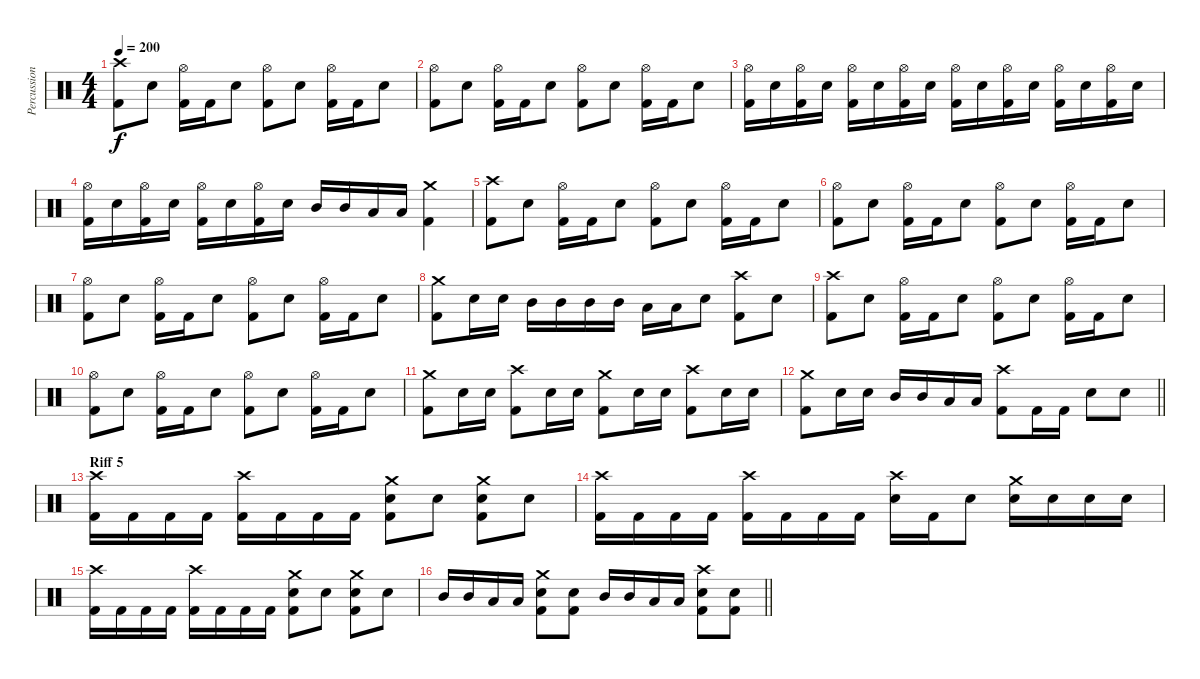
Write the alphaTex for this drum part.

\track ("Percussion" "Percussion") {instrument percussion}
\staff {score}
\articulation defaults
\ts (4 4)
\tempo 200
\clef neutral
\ks c
("Crash high (hit)" "Kick (hit) 2").8{dy f} "Electric Snare (hit)".8 ("Hi-Hat (open)" "Kick (hit) 2").16 "Kick (hit) 2".16 "Electric Snare (hit)".8 ("Hi-Hat (open)" "Kick (hit) 2").8 "Electric Snare (hit)".8 ("Hi-Hat (open)" "Kick (hit) 2").16 "Kick (hit) 2".16 "Electric Snare (hit)".8 |
("Hi-Hat (open)" "Kick (hit) 2").8 "Electric Snare (hit)".8 ("Hi-Hat (open)" "Kick (hit) 2").16 "Kick (hit) 2".16 "Electric Snare (hit)".8 ("Hi-Hat (open)" "Kick (hit) 2").8 "Electric Snare (hit)".8 ("Hi-Hat (open)" "Kick (hit) 2").16 "Kick (hit) 2".16 "Electric Snare (hit)".8 |
("Hi-Hat (open)" "Kick (hit) 2").16 "Electric Snare (hit)".16 ("Hi-Hat (open)" "Kick (hit) 2").16 "Electric Snare (hit)".16 ("Hi-Hat (open)" "Kick (hit) 2").16 "Electric Snare (hit)".16 ("Hi-Hat (open)" "Kick (hit) 2").16 "Electric Snare (hit)".16 ("Hi-Hat (open)" "Kick (hit) 2").16 "Electric Snare (hit)".16 ("Hi-Hat (open)" "Kick (hit) 2").16 "Electric Snare (hit)".16 ("Hi-Hat (open)" "Kick (hit) 2").16 "Electric Snare (hit)".16 ("Hi-Hat (open)" "Kick (hit) 2").16 "Electric Snare (hit)".16 |
("Hi-Hat (open)" "Kick (hit) 2").16 "Electric Snare (hit)".16 ("Hi-Hat (open)" "Kick (hit) 2").16 "Electric Snare (hit)".16 ("Hi-Hat (open)" "Kick (hit) 2").16 "Electric Snare (hit)".16 ("Hi-Hat (open)" "Kick (hit) 2").16 "Electric Snare (hit)".16 "Mid Tom (hit)".16 "Mid Tom (hit)".16 "Low Tom (hit)".16 "Low Tom (hit)".16 ("Crash medium (hit)" "Kick (hit) 2").4 |
("Crash high (hit)" "Kick (hit) 2").8 "Electric Snare (hit)".8 ("Hi-Hat (open)" "Kick (hit) 2").16 "Kick (hit) 2".16 "Electric Snare (hit)".8 ("Hi-Hat (open)" "Kick (hit) 2").8 "Electric Snare (hit)".8 ("Hi-Hat (open)" "Kick (hit) 2").16 "Kick (hit) 2".16 "Electric Snare (hit)".8 |
("Hi-Hat (open)" "Kick (hit) 2").8 "Electric Snare (hit)".8 ("Hi-Hat (open)" "Kick (hit) 2").16 "Kick (hit) 2".16 "Electric Snare (hit)".8 ("Hi-Hat (open)" "Kick (hit) 2").8 "Electric Snare (hit)".8 ("Hi-Hat (open)" "Kick (hit) 2").16 "Kick (hit) 2".16 "Electric Snare (hit)".8 |
("Hi-Hat (open)" "Kick (hit) 2").8 "Electric Snare (hit)".8 ("Hi-Hat (open)" "Kick (hit) 2").16 "Kick (hit) 2".16 "Electric Snare (hit)".8 ("Hi-Hat (open)" "Kick (hit) 2").8 "Electric Snare (hit)".8 ("Hi-Hat (open)" "Kick (hit) 2").16 "Kick (hit) 2".16 "Electric Snare (hit)".8 |
("Crash medium (hit)" "Kick (hit) 2").8 "Electric Snare (hit)".16 "Electric Snare (hit)".16 "Mid Tom (hit)".16 "Mid Tom (hit)".16 "Mid Tom (hit)".16 "Mid Tom (hit)".16 "Low Tom (hit)".16 "Low Tom (hit)".16 "Electric Snare (hit)".8 ("Crash high (hit)" "Kick (hit) 2").8 "Electric Snare (hit)".8 |
("Crash high (hit)" "Kick (hit) 2").8 "Electric Snare (hit)".8 ("Hi-Hat (open)" "Kick (hit) 2").16 "Kick (hit) 2".16 "Electric Snare (hit)".8 ("Hi-Hat (open)" "Kick (hit) 2").8 "Electric Snare (hit)".8 ("Hi-Hat (open)" "Kick (hit) 2").16 "Kick (hit) 2".16 "Electric Snare (hit)".8 |
("Hi-Hat (open)" "Kick (hit) 2").8 "Electric Snare (hit)".8 ("Hi-Hat (open)" "Kick (hit) 2").16 "Kick (hit) 2".16 "Electric Snare (hit)".8 ("Hi-Hat (open)" "Kick (hit) 2").8 "Electric Snare (hit)".8 ("Hi-Hat (open)" "Kick (hit) 2").16 "Kick (hit) 2".16 "Electric Snare (hit)".8 |
("Crash medium (hit)" "Kick (hit) 2").8 "Electric Snare (hit)".16 "Electric Snare (hit)".16 ("Crash high (hit)" "Kick (hit) 2").8 "Electric Snare (hit)".16 "Electric Snare (hit)".16 ("Crash medium (hit)" "Kick (hit) 2").8 "Electric Snare (hit)".16 "Electric Snare (hit)".16 ("Crash high (hit)" "Kick (hit) 2").8 "Electric Snare (hit)".16 "Electric Snare (hit)".16 |
\barLineRight lightlight
("Crash medium (hit)" "Kick (hit) 2").8 "Electric Snare (hit)".16 "Electric Snare (hit)".16 "Mid Tom (hit)".16 "Mid Tom (hit)".16 "Low Tom (hit)".16 "Low Tom (hit)".16 ("Crash high (hit)" "Kick (hit) 2").8 "Kick (hit) 2".16 "Kick (hit) 2".16 "Electric Snare (hit)".8 "Electric Snare (hit)".8 |
\section ("" "Riff 5")
("Crash high (hit)" "Kick (hit) 2").16 "Kick (hit) 2".16 "Kick (hit) 2".16 "Kick (hit) 2".16 ("Crash high (hit)" "Kick (hit) 2").16 "Kick (hit) 2".16 "Kick (hit) 2".16 "Kick (hit) 2".16 ("Crash medium (hit)" "Electric Snare (hit)" "Kick (hit) 2").8 "Electric Snare (hit)".8 ("Crash medium (hit)" "Electric Snare (hit)" "Kick (hit) 2").8 "Electric Snare (hit)".8 |
("Crash high (hit)" "Kick (hit) 2").16 "Kick (hit) 2".16 "Kick (hit) 2".16 "Kick (hit) 2".16 ("Crash high (hit)" "Kick (hit) 2").16 "Kick (hit) 2".16 "Kick (hit) 2".16 "Kick (hit) 2".16 ("Crash high (hit)" "Electric Snare (hit)").16 "Kick (hit) 2".16 "Electric Snare (hit)".8 ("Crash medium (hit)" "Electric Snare (hit)").16 "Electric Snare (hit)".16 "Electric Snare (hit)".16 "Electric Snare (hit)".16 |
("Crash high (hit)" "Kick (hit) 2").16 "Kick (hit) 2".16 "Kick (hit) 2".16 "Kick (hit) 2".16 ("Crash high (hit)" "Kick (hit) 2").16 "Kick (hit) 2".16 "Kick (hit) 2".16 "Kick (hit) 2".16 ("Crash medium (hit)" "Electric Snare (hit)" "Kick (hit) 2").8 "Electric Snare (hit)".8 ("Crash medium (hit)" "Electric Snare (hit)" "Kick (hit) 2").8 "Electric Snare (hit)".8 |
\barLineRight lightlight "Mid Tom (hit)".16 "Mid Tom (hit)".16 "Low Tom (hit)".16 "Low Tom (hit)".16
("Crash medium (hit)" "Electric Snare (hit)" "Kick (hit) 2").8 ("Electric Snare (hit)" "Kick (hit) 2").8 "Mid Tom (hit)".16 "Mid Tom (hit)".16 "Low Tom (hit)".16 "Low Tom (hit)".16 ("Crash high (hit)" "Electric Snare (hit)" "Kick (hit) 2").8 ("Electric Snare (hit)" "Kick (hit) 2").8
